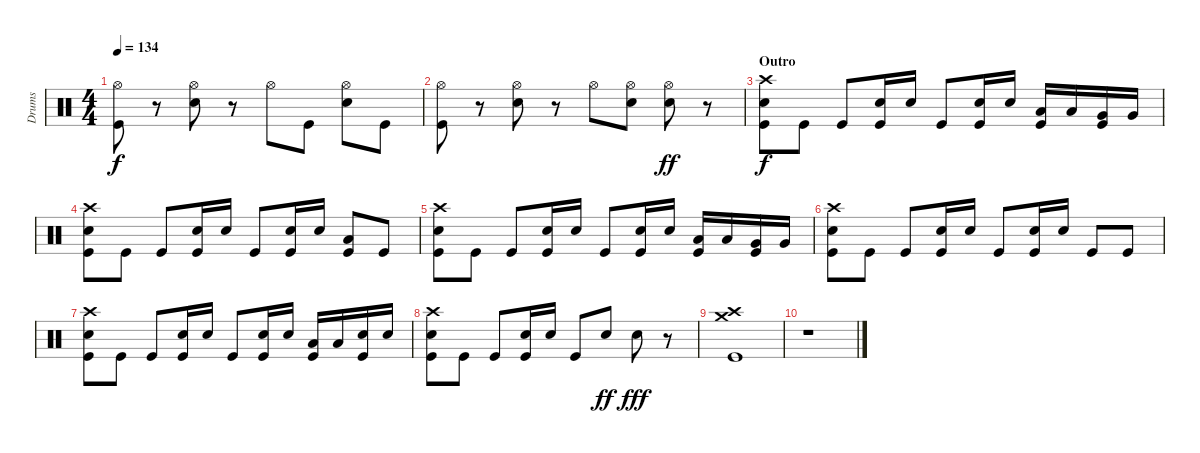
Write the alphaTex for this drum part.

\track ("Drums" "Drums") {instrument percussion}
\staff {score}
\articulation defaults
\ts (4 4)
\tempo 134
\clef neutral
\ks c
("Hi-Hat (open)" "Kick (hit)").8{dy f} r.8 ("Hi-Hat (open)" "Electric Snare (hit)").8 r.8 "Hi-Hat (open)".8 "Kick (hit)".8 ("Hi-Hat (open)" "Electric Snare (hit)").8 "Kick (hit)".8 |
("Hi-Hat (open)" "Kick (hit)").8 r.8 ("Hi-Hat (open)" "Electric Snare (hit)").8 r.8 "Hi-Hat (open)".8 ("Hi-Hat (open)" "Electric Snare (hit)").8 ("Hi-Hat (open)" "Electric Snare (hit)").8{dy ff} r.8 |
\section ("" "Outro")
("Crash high (hit)" "Electric Snare (hit)" "Kick (hit)").8{dy f} "Kick (hit)".8 "Kick (hit)".8 ("Electric Snare (hit)" "Kick (hit)").16 "Electric Snare (hit)".16 "Kick (hit)".8 ("Electric Snare (hit)" "Kick (hit)").16 "Electric Snare (hit)".16 ("Low Tom (hit)" "Kick (hit)").16 "Low Tom (hit)".16 ("Very Low Tom (hit)" "Kick (hit)").16 "Very Low Tom (hit)".16 |
("Crash high (hit)" "Electric Snare (hit)" "Kick (hit)").8 "Kick (hit)".8 "Kick (hit)".8 ("Electric Snare (hit)" "Kick (hit)").16 "Electric Snare (hit)".16 "Kick (hit)".8 ("Electric Snare (hit)" "Kick (hit)").16 "Electric Snare (hit)".16 ("Low Tom (hit)" "Kick (hit)").8 "Kick (hit)".8 |
("Crash high (hit)" "Electric Snare (hit)" "Kick (hit)").8 "Kick (hit)".8 "Kick (hit)".8 ("Electric Snare (hit)" "Kick (hit)").16 "Electric Snare (hit)".16 "Kick (hit)".8 ("Electric Snare (hit)" "Kick (hit)").16 "Electric Snare (hit)".16 ("Low Tom (hit)" "Kick (hit)").16 "Low Tom (hit)".16 ("Very Low Tom (hit)" "Kick (hit)").16 "Very Low Tom (hit)".16 |
("Crash high (hit)" "Electric Snare (hit)" "Kick (hit)").8 "Kick (hit)".8 "Kick (hit)".8 ("Electric Snare (hit)" "Kick (hit)").16 "Electric Snare (hit)".16 "Kick (hit)".8 ("Electric Snare (hit)" "Kick (hit)").16 "Electric Snare (hit)".16 "Kick (hit)".8 "Kick (hit)".8 |
("Crash high (hit)" "Electric Snare (hit)" "Kick (hit)").8 "Kick (hit)".8 "Kick (hit)".8 ("Electric Snare (hit)" "Kick (hit)").16 "Electric Snare (hit)".16 "Kick (hit)".8 ("Electric Snare (hit)" "Kick (hit)").16 "Electric Snare (hit)".16 ("Low Tom (hit)" "Kick (hit)").16 "Low Tom (hit)".16 ("Electric Snare (hit)" "Kick (hit)").16 "Electric Snare (hit)".16 |
("Crash high (hit)" "Electric Snare (hit)" "Kick (hit)").8 "Kick (hit)".8 "Kick (hit)".8 ("Electric Snare (hit)" "Kick (hit)").16 "Electric Snare (hit)".16 "Kick (hit)".8 "Electric Snare (hit)".8{dy ff} "Electric Snare (hit)".8{dy fff} r.8 |
("Crash high (hit)" "Crash medium (hit)" "Kick (hit)").1 |
r.1
